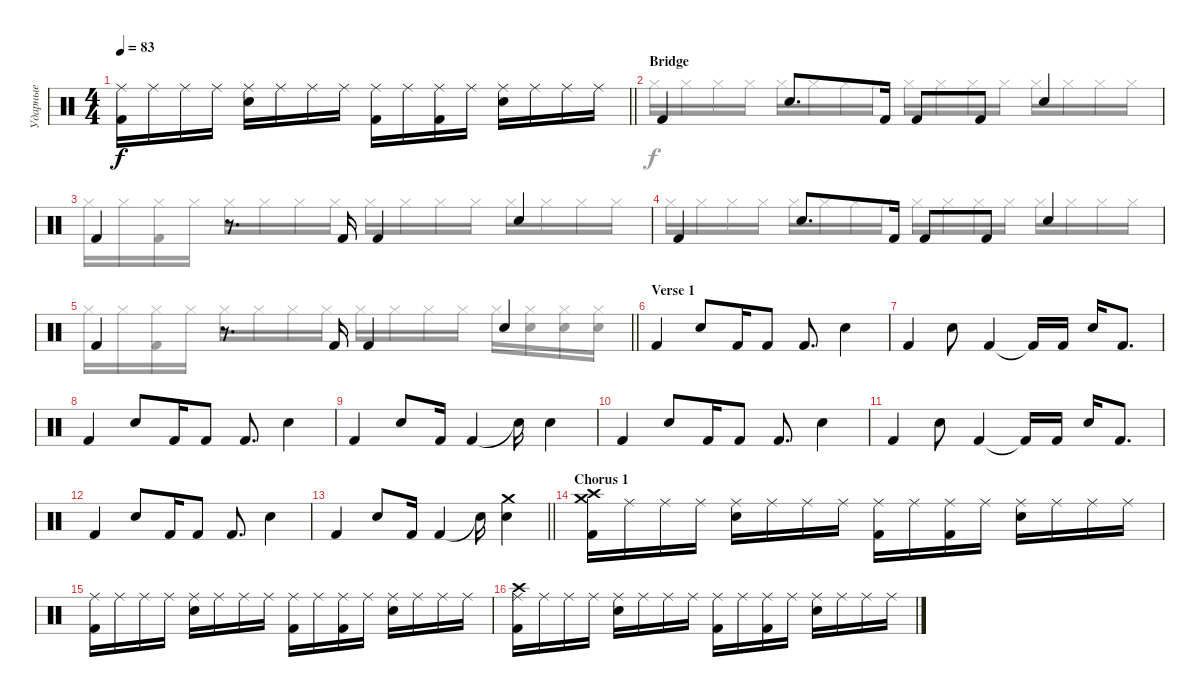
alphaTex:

\track ("Ударные" "Ударные") {instrument percussion}
\staff {score}
\articulation defaults
\voice
\ts (4 4)
\tempo 83
\clef neutral
\barLineRight lightlight
\ks c
("Ride (middle)" "Kick (hit) 2").16{dy f} "Ride (middle)".16 "Ride (middle)".16 "Ride (middle)".16 ("Ride (middle)" "Snare (hit) 2").16 "Ride (middle)".16 "Ride (middle)".16 "Ride (middle)".16 ("Ride (middle)" "Kick (hit) 2").16 "Ride (middle)".16 ("Ride (middle)" "Kick (hit) 2").16 "Ride (middle)".16 ("Ride (middle)" "Snare (hit) 2").16 "Ride (middle)".16 "Ride (middle)".16 "Ride (middle)".16 |
\section ("" "Bridge")
"Kick (hit) 2".4 "Snare (hit) 2".8{d} "Kick (hit) 2".16 "Kick (hit) 2".8 "Kick (hit) 2".8 "Snare (hit) 2".4 |
"Kick (hit) 2".4 r.8{d} "Kick (hit) 2".16 "Kick (hit) 2".4 "Snare (hit) 2".4 |
"Kick (hit) 2".4 "Snare (hit) 2".8{d} "Kick (hit) 2".16 "Kick (hit) 2".8 "Kick (hit) 2".8 "Snare (hit) 2".4 |
\barLineRight lightlight "Kick (hit) 2".4
r.8{d} "Kick (hit) 2".16 "Kick (hit) 2".4 "Snare (hit) 2".4 |
\section ("" "Verse 1")
"Kick (hit) 2".4 "Snare (hit) 2".8 "Kick (hit) 2".16 "Kick (hit) 2".8 "Kick (hit) 2".8{d} "Snare (hit) 2".4 |
"Kick (hit) 2".4 "Snare (hit) 2".8 "Kick (hit) 2".4 "Kick (hit) 2"{t}.16 "Kick (hit) 2".16 "Snare (hit) 2".16 "Kick (hit) 2".8{d} |
"Kick (hit) 2".4 "Snare (hit) 2".8 "Kick (hit) 2".16 "Kick (hit) 2".8 "Kick (hit) 2".8{d} "Snare (hit) 2".4 |
"Kick (hit) 2".4 "Snare (hit) 2".8 "Kick (hit) 2".16 "Kick (hit) 2".4 "Snare (hit)"{t}.16 "Snare (hit) 2".4 |
"Kick (hit) 2".4 "Snare (hit) 2".8 "Kick (hit) 2".16 "Kick (hit) 2".8 "Kick (hit) 2".8{d} "Snare (hit) 2".4 |
"Kick (hit) 2".4 "Snare (hit) 2".8 "Kick (hit) 2".4 "Kick (hit) 2"{t}.16 "Kick (hit) 2".16 "Snare (hit) 2".16 "Kick (hit) 2".8{d} |
"Kick (hit) 2".4 "Snare (hit) 2".8 "Kick (hit) 2".16 "Kick (hit) 2".8 "Kick (hit) 2".8{d} "Snare (hit) 2".4 |
\barLineRight lightlight "Kick (hit) 2".4 "Snare (hit) 2".8 "Kick (hit) 2".16 "Kick (hit) 2".4 "Snare (hit)"{t}.16
("Crash medium (hit)" "Snare (hit) 2").4 |
\section ("" "Chorus 1")
("Crash medium (hit)" "Crash high (hit)" "Kick (hit) 2").16 "Ride (middle)".16 "Ride (middle)".16 "Ride (middle)".16 ("Ride (middle)" "Snare (hit) 2").16 "Ride (middle)".16 "Ride (middle)".16 "Ride (middle)".16 ("Ride (middle)" "Kick (hit) 2").16 "Ride (middle)".16 ("Ride (middle)" "Kick (hit) 2").16 "Ride (middle)".16 ("Ride (middle)" "Snare (hit) 2").16 "Ride (middle)".16 "Ride (middle)".16 "Ride (middle)".16 |
("Ride (middle)" "Kick (hit) 2").16 "Ride (middle)".16 "Ride (middle)".16 "Ride (middle)".16 ("Ride (middle)" "Snare (hit) 2").16 "Ride (middle)".16 "Ride (middle)".16 "Ride (middle)".16 ("Ride (middle)" "Kick (hit) 2").16 "Ride (middle)".16 ("Ride (middle)" "Kick (hit) 2").16 "Ride (middle)".16 ("Ride (middle)" "Snare (hit) 2").16 "Ride (middle)".16 "Ride (middle)".16 "Ride (middle)".16 |
("Ride (middle)" "Crash high (hit)" "Kick (hit) 2").16 "Ride (middle)".16 "Ride (middle)".16 "Ride (middle)".16 ("Ride (middle)" "Snare (hit) 2").16 "Ride (middle)".16 "Ride (middle)".16 "Ride (middle)".16 ("Ride (middle)" "Kick (hit) 2").16 "Ride (middle)".16 ("Ride (middle)" "Kick (hit) 2").16 "Ride (middle)".16 ("Ride (middle)" "Snare (hit) 2").16 "Ride (middle)".16 "Ride (middle)".16 "Ride (middle)".16
\voice
\clef neutral
\ottava regular
\simile none
\barLineRight lightlight
\ks c
|
"Hi-Hat (closed)".16 "Hi-Hat (closed)".16 "Hi-Hat (closed)".16 "Hi-Hat (closed)".16 "Hi-Hat (closed)".16 "Hi-Hat (closed)".16 "Hi-Hat (closed)".16 "Hi-Hat (closed)".16 "Hi-Hat (closed)".16 "Hi-Hat (closed)".16 "Hi-Hat (closed)".16 "Hi-Hat (closed)".16 "Hi-Hat (closed)".16 "Hi-Hat (closed)".16 "Hi-Hat (closed)".16 "Hi-Hat (closed)".16 |
"Hi-Hat (closed)".16 "Hi-Hat (closed)".16 ("Hi-Hat (closed)" "Kick (hit) 2").16 "Hi-Hat (closed)".16 "Hi-Hat (closed)".16 "Hi-Hat (closed)".16 "Hi-Hat (closed)".16 "Hi-Hat (closed)".16 "Hi-Hat (closed)".16 "Hi-Hat (closed)".16 "Hi-Hat (closed)".16 "Hi-Hat (closed)".16 "Hi-Hat (closed)".16 "Hi-Hat (closed)".16 "Hi-Hat (closed)".16 "Hi-Hat (closed)".16 |
"Hi-Hat (closed)".16 "Hi-Hat (closed)".16 "Hi-Hat (closed)".16 "Hi-Hat (closed)".16 "Hi-Hat (closed)".16 "Hi-Hat (closed)".16 "Hi-Hat (closed)".16 "Hi-Hat (closed)".16 "Hi-Hat (closed)".16 "Hi-Hat (closed)".16 "Hi-Hat (closed)".16 "Hi-Hat (closed)".16 "Hi-Hat (closed)".16 "Hi-Hat (closed)".16 "Hi-Hat (closed)".16 "Hi-Hat (closed)".16 |
\barLineRight lightlight "Hi-Hat (closed)".16 "Hi-Hat (closed)".16
("Hi-Hat (closed)" "Kick (hit) 2").16 "Hi-Hat (closed)".16 "Hi-Hat (closed)".16 "Hi-Hat (closed)".16 "Hi-Hat (closed)".16 "Hi-Hat (closed)".16 "Hi-Hat (closed)".16 "Hi-Hat (closed)".16 "Hi-Hat (closed)".16 "Hi-Hat (closed)".16 "Hi-Hat (closed)".16 ("Snare (hit) 2" "Hi-Hat (closed)").16 ("Snare (hit) 2" "Hi-Hat (closed)").16 ("Snare (hit) 2" "Hi-Hat (closed)").16 |
|
|
|
|
|
|
|
\barLineRight lightlight
|
|
|
